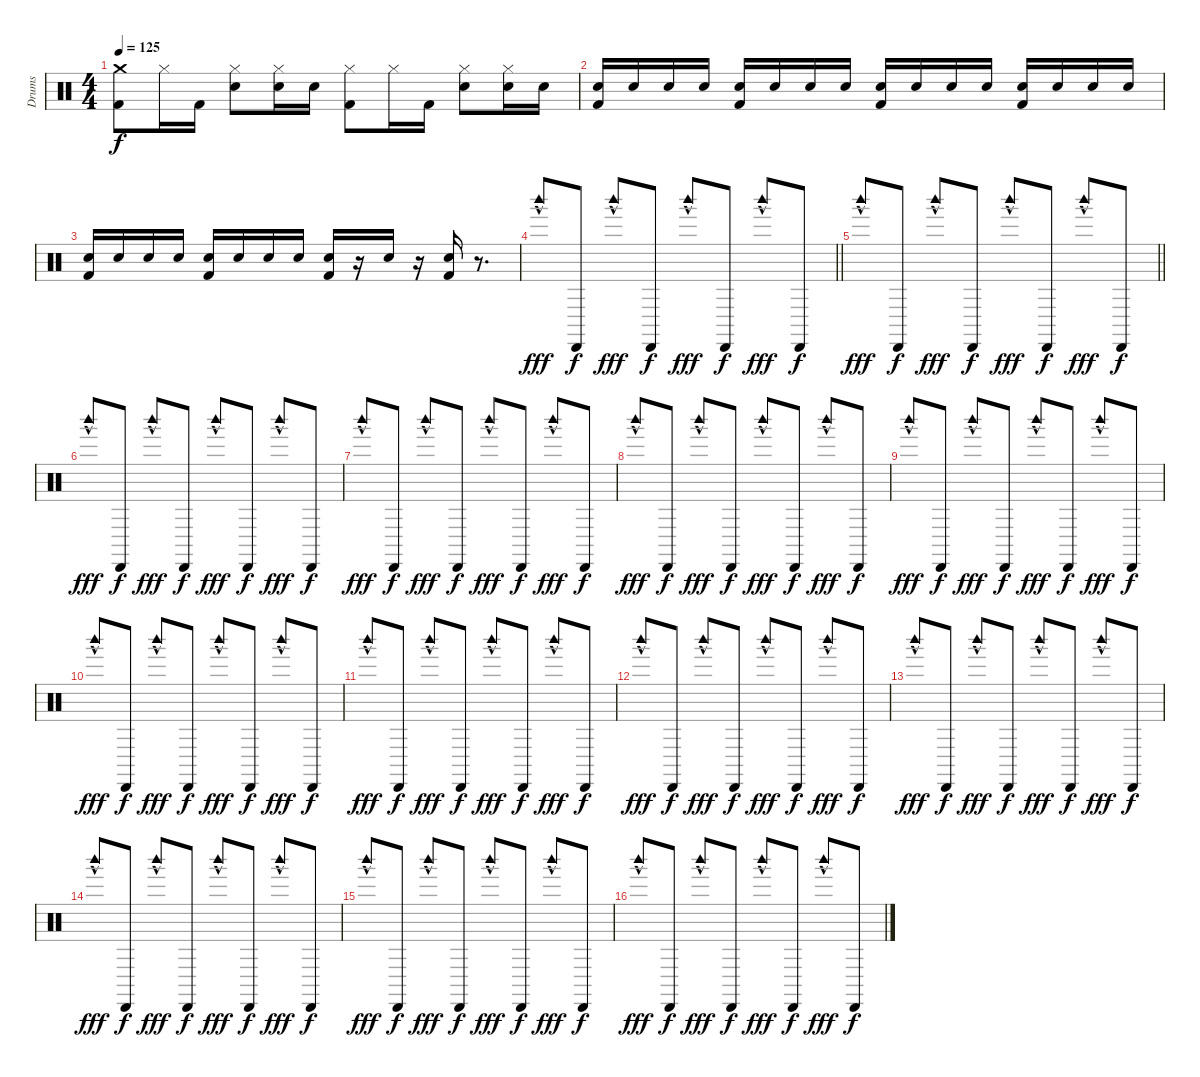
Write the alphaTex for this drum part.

\track ("Drums" "Drums") {instrument percussion}
\staff {score}
\articulation defaults
\ts (4 4)
\tempo 125
\clef neutral
\ks c
("Crash medium (hit)" "Kick (hit) 2").8{dy f} "Hi-Hat (closed)".16 "Kick (hit) 2".16 ("Hi-Hat (closed)" "Electric Snare (hit)").8 ("Hi-Hat (closed)" "Electric Snare (hit)").16 "Electric Snare (hit)".16 ("Hi-Hat (closed)" "Kick (hit) 2").8 "Hi-Hat (closed)".16 "Kick (hit) 2".16 ("Hi-Hat (closed)" "Electric Snare (hit)").8 ("Hi-Hat (closed)" "Electric Snare (hit)").16 "Electric Snare (hit)".16 |
("Electric Snare (hit)" "Kick (hit) 2").16 "Electric Snare (hit)".16 "Electric Snare (hit)".16 "Electric Snare (hit)".16 ("Electric Snare (hit)" "Kick (hit) 2").16 "Electric Snare (hit)".16 "Electric Snare (hit)".16 "Electric Snare (hit)".16 ("Electric Snare (hit)" "Kick (hit) 2").16 "Electric Snare (hit)".16 "Electric Snare (hit)".16 "Electric Snare (hit)".16 ("Electric Snare (hit)" "Kick (hit) 2").16 "Electric Snare (hit)".16 "Electric Snare (hit)".16 "Electric Snare (hit)".16 |
("Electric Snare (hit)" "Kick (hit) 2").16 "Electric Snare (hit)".16 "Electric Snare (hit)".16 "Electric Snare (hit)".16 ("Electric Snare (hit)" "Kick (hit) 2").16 "Electric Snare (hit)".16 "Electric Snare (hit)".16 "Electric Snare (hit)".16 ("Electric Snare (hit)" "Kick (hit) 2").16 r.16 "Electric Snare (hit)".16 r.16 ("Electric Snare (hit)" "Kick (hit) 2").16 r.8{d} |
\barLineRight lightlight "Woodblock high (hit)"{hac}.8{dy fff} "Cabasa (hit)".8{dy f} "Woodblock high (hit)"{hac}.8{dy fff} "Cabasa (hit)".8{dy f} "Woodblock high (hit)"{hac}.8{dy fff} "Cabasa (hit)".8{dy f} "Woodblock high (hit)"{hac}.8{dy fff} "Cabasa (hit)".8{dy f}
|
\barLineRight lightlight "Woodblock high (hit)"{hac}.8{dy fff} "Cabasa (hit)".8{dy f} "Woodblock high (hit)"{hac}.8{dy fff} "Cabasa (hit)".8{dy f} "Woodblock high (hit)"{hac}.8{dy fff} "Cabasa (hit)".8{dy f} "Woodblock high (hit)"{hac}.8{dy fff} "Cabasa (hit)".8{dy f}
|
"Woodblock high (hit)"{hac}.8{dy fff} "Cabasa (hit)".8{dy f} "Woodblock high (hit)"{hac}.8{dy fff} "Cabasa (hit)".8{dy f} "Woodblock high (hit)"{hac}.8{dy fff} "Cabasa (hit)".8{dy f} "Woodblock high (hit)"{hac}.8{dy fff} "Cabasa (hit)".8{dy f} |
"Woodblock high (hit)"{hac}.8{dy fff} "Cabasa (hit)".8{dy f} "Woodblock high (hit)"{hac}.8{dy fff} "Cabasa (hit)".8{dy f} "Woodblock high (hit)"{hac}.8{dy fff} "Cabasa (hit)".8{dy f} "Woodblock high (hit)"{hac}.8{dy fff} "Cabasa (hit)".8{dy f} |
"Woodblock high (hit)"{hac}.8{dy fff} "Cabasa (hit)".8{dy f} "Woodblock high (hit)"{hac}.8{dy fff} "Cabasa (hit)".8{dy f} "Woodblock high (hit)"{hac}.8{dy fff} "Cabasa (hit)".8{dy f} "Woodblock high (hit)"{hac}.8{dy fff} "Cabasa (hit)".8{dy f} |
"Woodblock high (hit)"{hac}.8{dy fff} "Cabasa (hit)".8{dy f} "Woodblock high (hit)"{hac}.8{dy fff} "Cabasa (hit)".8{dy f} "Woodblock high (hit)"{hac}.8{dy fff} "Cabasa (hit)".8{dy f} "Woodblock high (hit)"{hac}.8{dy fff} "Cabasa (hit)".8{dy f} |
"Woodblock high (hit)"{hac}.8{dy fff} "Cabasa (hit)".8{dy f} "Woodblock high (hit)"{hac}.8{dy fff} "Cabasa (hit)".8{dy f} "Woodblock high (hit)"{hac}.8{dy fff} "Cabasa (hit)".8{dy f} "Woodblock high (hit)"{hac}.8{dy fff} "Cabasa (hit)".8{dy f} |
"Woodblock high (hit)"{hac}.8{dy fff} "Cabasa (hit)".8{dy f} "Woodblock high (hit)"{hac}.8{dy fff} "Cabasa (hit)".8{dy f} "Woodblock high (hit)"{hac}.8{dy fff} "Cabasa (hit)".8{dy f} "Woodblock high (hit)"{hac}.8{dy fff} "Cabasa (hit)".8{dy f} |
"Woodblock high (hit)"{hac}.8{dy fff} "Cabasa (hit)".8{dy f} "Woodblock high (hit)"{hac}.8{dy fff} "Cabasa (hit)".8{dy f} "Woodblock high (hit)"{hac}.8{dy fff} "Cabasa (hit)".8{dy f} "Woodblock high (hit)"{hac}.8{dy fff} "Cabasa (hit)".8{dy f} |
"Woodblock high (hit)"{hac}.8{dy fff} "Cabasa (hit)".8{dy f} "Woodblock high (hit)"{hac}.8{dy fff} "Cabasa (hit)".8{dy f} "Woodblock high (hit)"{hac}.8{dy fff} "Cabasa (hit)".8{dy f} "Woodblock high (hit)"{hac}.8{dy fff} "Cabasa (hit)".8{dy f} |
"Woodblock high (hit)"{hac}.8{dy fff} "Cabasa (hit)".8{dy f} "Woodblock high (hit)"{hac}.8{dy fff} "Cabasa (hit)".8{dy f} "Woodblock high (hit)"{hac}.8{dy fff} "Cabasa (hit)".8{dy f} "Woodblock high (hit)"{hac}.8{dy fff} "Cabasa (hit)".8{dy f} |
"Woodblock high (hit)"{hac}.8{dy fff} "Cabasa (hit)".8{dy f} "Woodblock high (hit)"{hac}.8{dy fff} "Cabasa (hit)".8{dy f} "Woodblock high (hit)"{hac}.8{dy fff} "Cabasa (hit)".8{dy f} "Woodblock high (hit)"{hac}.8{dy fff} "Cabasa (hit)".8{dy f} |
"Woodblock high (hit)"{hac}.8{dy fff} "Cabasa (hit)".8{dy f} "Woodblock high (hit)"{hac}.8{dy fff} "Cabasa (hit)".8{dy f} "Woodblock high (hit)"{hac}.8{dy fff} "Cabasa (hit)".8{dy f} "Woodblock high (hit)"{hac}.8{dy fff} "Cabasa (hit)".8{dy f}
